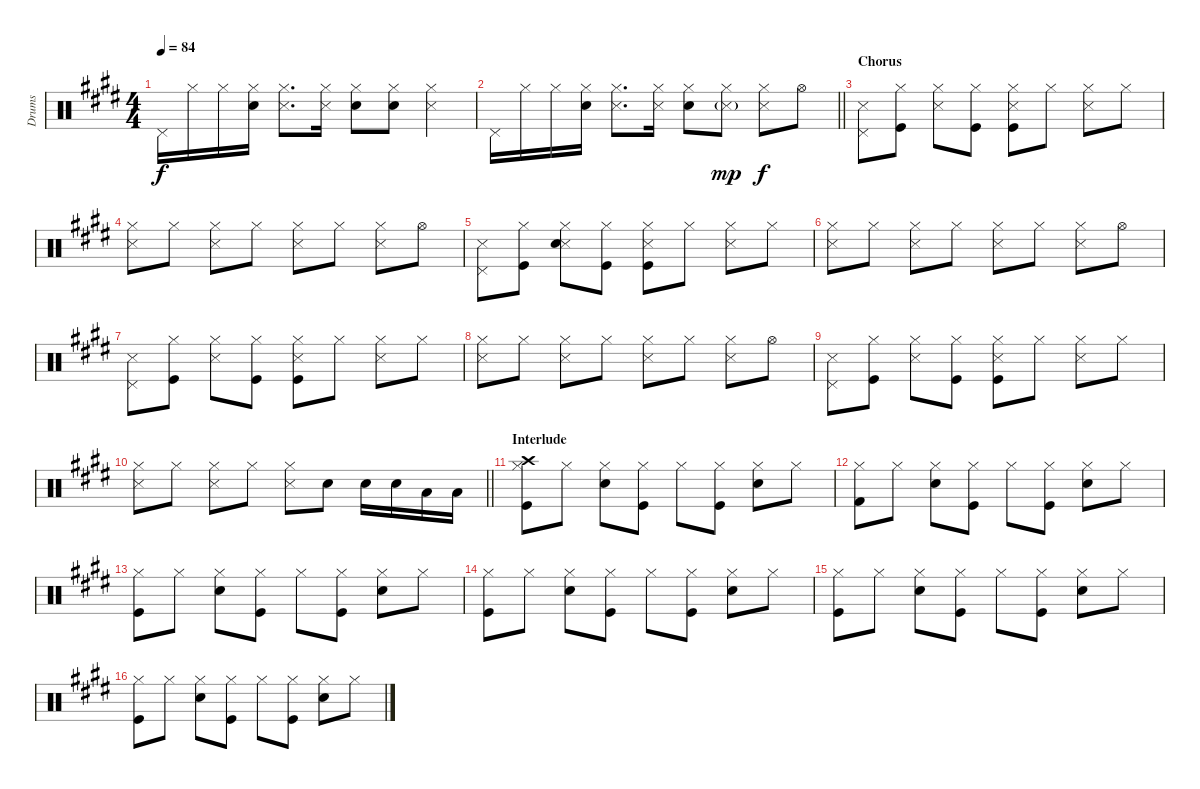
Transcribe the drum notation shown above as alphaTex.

\track ("Drums" "Drums") {instrument percussion}
\staff {score}
\articulation defaults
\ts (4 4)
\tempo 84
\clef neutral
\ks e "Pedal Hi-Hat (hit)".16{dy f} "Hi-Hat (closed)".16 "Hi-Hat (closed)".16
("Hi-Hat (closed)" "Snare (hit)").16 ("Hi-Hat (closed)" "Snare (side stick) 3").8{d} ("Hi-Hat (closed)" "Snare (side stick) 3").16 ("Hi-Hat (closed)" "Snare (hit)").8 ("Hi-Hat (closed)" "Snare (hit)").8 ("Hi-Hat (closed)" "Snare (side stick) 3").4 |
\barLineRight lightlight
\ks c#minor "Pedal Hi-Hat (hit)".16 "Hi-Hat (closed)".16 "Hi-Hat (closed)".16
("Hi-Hat (closed)" "Snare (hit)").16 ("Hi-Hat (closed)" "Snare (side stick) 3").8{d} ("Hi-Hat (closed)" "Snare (side stick) 3").16 ("Hi-Hat (closed)" "Snare (hit)").8 ("Hi-Hat (closed)" "Snare (side stick) 3"{g}).8{dy mp} ("Hi-Hat (closed)" "Snare (side stick) 3").8{dy f} "Hi-Hat (open)".8 |
\section ("" "Chorus")
("Pedal Hi-Hat (hit)" "Snare (side stick) 3").8 ("Hi-Hat (closed)" "Kick (hit)").8 ("Hi-Hat (closed)" "Snare (side stick) 3").8 ("Hi-Hat (closed)" "Kick (hit)").8 ("Hi-Hat (closed)" "Snare (side stick) 3" "Kick (hit)").8 "Hi-Hat (closed)".8 ("Hi-Hat (closed)" "Snare (side stick) 3").8 "Hi-Hat (closed)".8 |
("Hi-Hat (closed)" "Snare (side stick) 3").8 "Hi-Hat (closed)".8 ("Hi-Hat (closed)" "Snare (side stick) 3").8 "Hi-Hat (closed)".8 ("Hi-Hat (closed)" "Snare (side stick) 3").8 "Hi-Hat (closed)".8 ("Hi-Hat (closed)" "Snare (side stick) 3").8 "Hi-Hat (open)".8 |
\ks e
("Pedal Hi-Hat (hit)" "Snare (side stick) 3").8 ("Hi-Hat (closed)" "Kick (hit)").8 ("Hi-Hat (closed)" "Snare (side stick) 3" "Snare (hit)").8 ("Hi-Hat (closed)" "Kick (hit)").8 ("Hi-Hat (closed)" "Snare (side stick) 3" "Kick (hit)").8 "Hi-Hat (closed)".8 ("Hi-Hat (closed)" "Snare (side stick) 3").8 "Hi-Hat (closed)".8 |
\ks c#minor
("Hi-Hat (closed)" "Snare (side stick) 3").8 "Hi-Hat (closed)".8 ("Hi-Hat (closed)" "Snare (side stick) 3").8 "Hi-Hat (closed)".8 ("Hi-Hat (closed)" "Snare (side stick) 3").8 "Hi-Hat (closed)".8 ("Hi-Hat (closed)" "Snare (side stick) 3").8 "Hi-Hat (open)".8 |
("Pedal Hi-Hat (hit)" "Snare (side stick) 3").8 ("Hi-Hat (closed)" "Kick (hit)").8 ("Hi-Hat (closed)" "Snare (side stick) 3").8 ("Hi-Hat (closed)" "Kick (hit)").8 ("Hi-Hat (closed)" "Snare (side stick) 3" "Kick (hit)").8 "Hi-Hat (closed)".8 ("Hi-Hat (closed)" "Snare (side stick) 3").8 "Hi-Hat (closed)".8 |
\ks e
("Hi-Hat (closed)" "Snare (side stick) 3").8 "Hi-Hat (closed)".8 ("Hi-Hat (closed)" "Snare (side stick) 3").8 "Hi-Hat (closed)".8 ("Hi-Hat (closed)" "Snare (side stick) 3").8 "Hi-Hat (closed)".8 ("Hi-Hat (closed)" "Snare (side stick) 3").8 "Hi-Hat (open)".8 |
\ks c#minor
("Pedal Hi-Hat (hit)" "Snare (side stick) 3").8 ("Hi-Hat (closed)" "Kick (hit)").8 ("Hi-Hat (closed)" "Snare (side stick) 3").8 ("Hi-Hat (closed)" "Kick (hit)").8 ("Hi-Hat (closed)" "Snare (side stick) 3" "Kick (hit)").8 "Hi-Hat (closed)".8 ("Hi-Hat (closed)" "Snare (side stick) 3").8 "Hi-Hat (closed)".8 |
\barLineRight lightlight
("Hi-Hat (closed)" "Snare (side stick) 3").8 "Hi-Hat (closed)".8 ("Hi-Hat (closed)" "Snare (side stick) 3").8 "Hi-Hat (closed)".8 ("Hi-Hat (closed)" "Snare (side stick) 3").8 "Snare (hit) 2".8 "Snare (hit) 2".16 "Snare (hit) 2".16 "Low Tom (hit)".16 "Low Tom (hit)".16 |
\section ("" "Interlude")
\ks e
("Hi-Hat (closed)" "Crash high (hit)" "Kick (hit)").8 "Hi-Hat (closed)".8 ("Hi-Hat (closed)" "Snare (hit) 2").8 ("Hi-Hat (closed)" "Kick (hit)").8 "Hi-Hat (closed)".8 ("Hi-Hat (closed)" "Kick (hit)").8 ("Hi-Hat (closed)" "Snare (hit) 2").8 "Hi-Hat (closed)".8 |
("Hi-Hat (closed)" "Kick (hit) 2").8 "Hi-Hat (closed)".8 ("Hi-Hat (closed)" "Snare (hit) 2").8 ("Hi-Hat (closed)" "Kick (hit)").8 "Hi-Hat (closed)".8 ("Hi-Hat (closed)" "Kick (hit)").8 ("Hi-Hat (closed)" "Snare (hit) 2").8 "Hi-Hat (closed)".8 |
("Hi-Hat (closed)" "Kick (hit)").8 "Hi-Hat (closed)".8 ("Hi-Hat (closed)" "Snare (hit) 2").8 ("Hi-Hat (closed)" "Kick (hit)").8 "Hi-Hat (closed)".8 ("Hi-Hat (closed)" "Kick (hit)").8 ("Hi-Hat (closed)" "Snare (hit) 2").8 "Hi-Hat (closed)".8 |
("Hi-Hat (closed)" "Kick (hit)").8 "Hi-Hat (closed)".8 ("Hi-Hat (closed)" "Snare (hit) 2").8 ("Hi-Hat (closed)" "Kick (hit)").8 "Hi-Hat (closed)".8 ("Hi-Hat (closed)" "Kick (hit)").8 ("Hi-Hat (closed)" "Snare (hit) 2").8 "Hi-Hat (closed)".8 |
("Hi-Hat (closed)" "Kick (hit)").8 "Hi-Hat (closed)".8 ("Hi-Hat (closed)" "Snare (hit) 2").8 ("Hi-Hat (closed)" "Kick (hit)").8 "Hi-Hat (closed)".8 ("Hi-Hat (closed)" "Kick (hit)").8 ("Hi-Hat (closed)" "Snare (hit) 2").8 "Hi-Hat (closed)".8 |
("Hi-Hat (closed)" "Kick (hit)").8 "Hi-Hat (closed)".8 ("Hi-Hat (closed)" "Snare (hit) 2").8 ("Hi-Hat (closed)" "Kick (hit)").8 "Hi-Hat (closed)".8 ("Hi-Hat (closed)" "Kick (hit)").8 ("Hi-Hat (closed)" "Snare (hit) 2").8 "Hi-Hat (closed)".8
